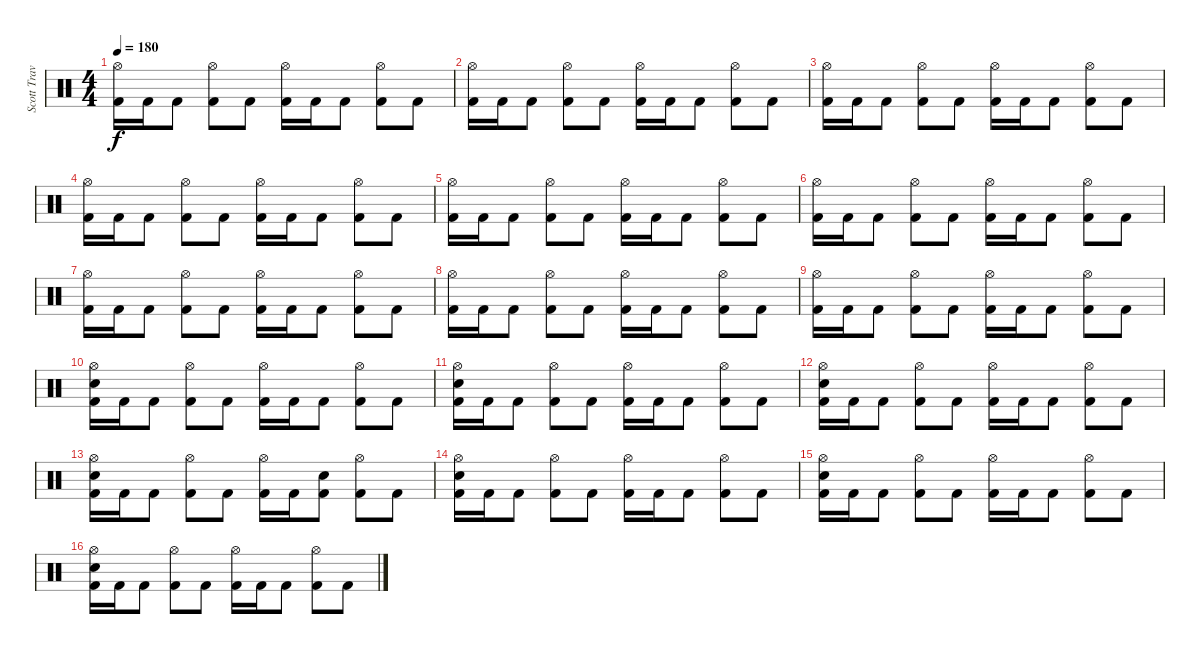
\track ("Scott Travis" "Scott Trav") {instrument percussion}
\staff {score}
\articulation defaults
\ts (4 4)
\tempo 180
\clef neutral
\ks c
("Hi-Hat (open)" "Kick (hit) 2").16{dy f} "Kick (hit) 2".16 "Kick (hit) 2".8 ("Hi-Hat (open)" "Kick (hit) 2").8 "Kick (hit) 2".8 ("Hi-Hat (open)" "Kick (hit) 2").16 "Kick (hit) 2".16 "Kick (hit) 2".8 ("Hi-Hat (open)" "Kick (hit) 2").8 "Kick (hit) 2".8 |
("Hi-Hat (open)" "Kick (hit) 2").16 "Kick (hit) 2".16 "Kick (hit) 2".8 ("Hi-Hat (open)" "Kick (hit) 2").8 "Kick (hit) 2".8 ("Hi-Hat (open)" "Kick (hit) 2").16 "Kick (hit) 2".16 "Kick (hit) 2".8 ("Hi-Hat (open)" "Kick (hit) 2").8 "Kick (hit) 2".8 |
("Hi-Hat (open)" "Kick (hit) 2").16 "Kick (hit) 2".16 "Kick (hit) 2".8 ("Hi-Hat (open)" "Kick (hit) 2").8 "Kick (hit) 2".8 ("Hi-Hat (open)" "Kick (hit) 2").16 "Kick (hit) 2".16 "Kick (hit) 2".8 ("Hi-Hat (open)" "Kick (hit) 2").8 "Kick (hit) 2".8 |
("Hi-Hat (open)" "Kick (hit) 2").16 "Kick (hit) 2".16 "Kick (hit) 2".8 ("Hi-Hat (open)" "Kick (hit) 2").8 "Kick (hit) 2".8 ("Hi-Hat (open)" "Kick (hit) 2").16 "Kick (hit) 2".16 "Kick (hit) 2".8 ("Hi-Hat (open)" "Kick (hit) 2").8 "Kick (hit) 2".8 |
("Hi-Hat (open)" "Kick (hit) 2").16 "Kick (hit) 2".16 "Kick (hit) 2".8 ("Hi-Hat (open)" "Kick (hit) 2").8 "Kick (hit) 2".8 ("Hi-Hat (open)" "Kick (hit) 2").16 "Kick (hit) 2".16 "Kick (hit) 2".8 ("Hi-Hat (open)" "Kick (hit) 2").8 "Kick (hit) 2".8 |
("Hi-Hat (open)" "Kick (hit) 2").16 "Kick (hit) 2".16 "Kick (hit) 2".8 ("Hi-Hat (open)" "Kick (hit) 2").8 "Kick (hit) 2".8 ("Hi-Hat (open)" "Kick (hit) 2").16 "Kick (hit) 2".16 "Kick (hit) 2".8 ("Hi-Hat (open)" "Kick (hit) 2").8 "Kick (hit) 2".8 |
("Hi-Hat (open)" "Kick (hit) 2").16 "Kick (hit) 2".16 "Kick (hit) 2".8 ("Hi-Hat (open)" "Kick (hit) 2").8 "Kick (hit) 2".8 ("Hi-Hat (open)" "Kick (hit) 2").16 "Kick (hit) 2".16 "Kick (hit) 2".8 ("Hi-Hat (open)" "Kick (hit) 2").8 "Kick (hit) 2".8 |
("Hi-Hat (open)" "Kick (hit) 2").16 "Kick (hit) 2".16 "Kick (hit) 2".8 ("Hi-Hat (open)" "Kick (hit) 2").8 "Kick (hit) 2".8 ("Hi-Hat (open)" "Kick (hit) 2").16 "Kick (hit) 2".16 "Kick (hit) 2".8 ("Hi-Hat (open)" "Kick (hit) 2").8 "Kick (hit) 2".8 |
("Hi-Hat (open)" "Kick (hit) 2").16 "Kick (hit) 2".16 "Kick (hit) 2".8 ("Hi-Hat (open)" "Kick (hit) 2").8 "Kick (hit) 2".8 ("Hi-Hat (open)" "Kick (hit) 2").16 "Kick (hit) 2".16 "Kick (hit) 2".8 ("Hi-Hat (open)" "Kick (hit) 2").8 "Kick (hit) 2".8 |
("Hi-Hat (open)" "Snare (hit) 2" "Kick (hit) 2").16 "Kick (hit) 2".16 "Kick (hit) 2".8 ("Hi-Hat (open)" "Kick (hit) 2").8 "Kick (hit) 2".8 ("Hi-Hat (open)" "Kick (hit) 2").16 "Kick (hit) 2".16 "Kick (hit) 2".8 ("Hi-Hat (open)" "Kick (hit) 2").8 "Kick (hit) 2".8 |
("Hi-Hat (open)" "Snare (hit) 2" "Kick (hit) 2").16 "Kick (hit) 2".16 "Kick (hit) 2".8 ("Hi-Hat (open)" "Kick (hit) 2").8 "Kick (hit) 2".8 ("Hi-Hat (open)" "Kick (hit) 2").16 "Kick (hit) 2".16 "Kick (hit) 2".8 ("Hi-Hat (open)" "Kick (hit) 2").8 "Kick (hit) 2".8 |
("Hi-Hat (open)" "Snare (hit) 2" "Kick (hit) 2").16 "Kick (hit) 2".16 "Kick (hit) 2".8 ("Hi-Hat (open)" "Kick (hit) 2").8 "Kick (hit) 2".8 ("Hi-Hat (open)" "Kick (hit) 2").16 "Kick (hit) 2".16 "Kick (hit) 2".8 ("Hi-Hat (open)" "Kick (hit) 2").8 "Kick (hit) 2".8 |
("Hi-Hat (open)" "Snare (hit) 2" "Kick (hit) 2").16 "Kick (hit) 2".16 "Kick (hit) 2".8 ("Hi-Hat (open)" "Kick (hit) 2").8 "Kick (hit) 2".8 ("Hi-Hat (open)" "Kick (hit) 2").16 "Kick (hit) 2".16 ("Snare (hit) 2" "Kick (hit) 2").8 ("Hi-Hat (open)" "Kick (hit) 2").8 "Kick (hit) 2".8 |
("Hi-Hat (open)" "Snare (hit) 2" "Kick (hit) 2").16 "Kick (hit) 2".16 "Kick (hit) 2".8 ("Hi-Hat (open)" "Kick (hit) 2").8 "Kick (hit) 2".8 ("Hi-Hat (open)" "Kick (hit) 2").16 "Kick (hit) 2".16 "Kick (hit) 2".8 ("Hi-Hat (open)" "Kick (hit) 2").8 "Kick (hit) 2".8 |
("Hi-Hat (open)" "Snare (hit) 2" "Kick (hit) 2").16 "Kick (hit) 2".16 "Kick (hit) 2".8 ("Hi-Hat (open)" "Kick (hit) 2").8 "Kick (hit) 2".8 ("Hi-Hat (open)" "Kick (hit) 2").16 "Kick (hit) 2".16 "Kick (hit) 2".8 ("Hi-Hat (open)" "Kick (hit) 2").8 "Kick (hit) 2".8 |
("Hi-Hat (open)" "Snare (hit) 2" "Kick (hit) 2").16 "Kick (hit) 2".16 "Kick (hit) 2".8 ("Hi-Hat (open)" "Kick (hit) 2").8 "Kick (hit) 2".8 ("Hi-Hat (open)" "Kick (hit) 2").16 "Kick (hit) 2".16 "Kick (hit) 2".8 ("Hi-Hat (open)" "Kick (hit) 2").8 "Kick (hit) 2".8
